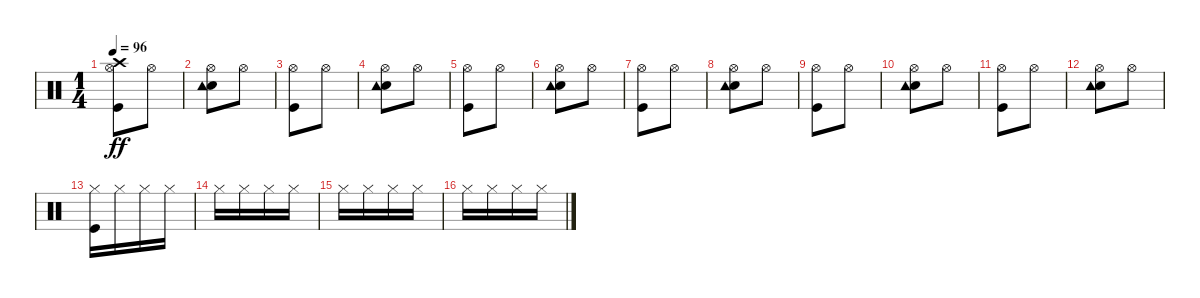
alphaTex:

\track "" {instrument percussion}
\staff {score}
\articulation defaults
\ts (1 4)
\tempo 96
\clef neutral
\ks c
("Kick (hit)" "Hi-Hat (open)" "Crash high (hit)").8{dy ff} "Hi-Hat (open)".8 |
("Snare (hit) 2" "Hi-Hat (open)" "Tambourine (hit)").8 "Hi-Hat (open)".8 |
("Kick (hit)" "Hi-Hat (open)").8 "Hi-Hat (open)".8 |
("Snare (hit) 2" "Hi-Hat (open)" "Tambourine (hit)").8 "Hi-Hat (open)".8 |
("Kick (hit)" "Hi-Hat (open)").8 "Hi-Hat (open)".8 |
("Snare (hit) 2" "Hi-Hat (open)" "Tambourine (hit)").8 "Hi-Hat (open)".8 |
("Kick (hit)" "Hi-Hat (open)").8 "Hi-Hat (open)".8 |
("Snare (hit) 2" "Hi-Hat (open)" "Tambourine (hit)").8 "Hi-Hat (open)".8 |
("Kick (hit)" "Hi-Hat (open)").8 "Hi-Hat (open)".8 |
("Snare (hit) 2" "Hi-Hat (open)" "Tambourine (hit)").8 "Hi-Hat (open)".8 |
("Kick (hit)" "Hi-Hat (open)").8 "Hi-Hat (open)".8 |
("Snare (hit) 2" "Hi-Hat (open)" "Tambourine (hit)").8 "Hi-Hat (open)".8 |
("Kick (hit)" "Hi-Hat (closed)").16 "Hi-Hat (closed)".16 "Hi-Hat (closed)".16 "Hi-Hat (closed)".16 |
"Hi-Hat (closed)".16 "Hi-Hat (closed)".16 "Hi-Hat (closed)".16 "Hi-Hat (closed)".16 |
"Hi-Hat (closed)".16 "Hi-Hat (closed)".16 "Hi-Hat (closed)".16 "Hi-Hat (closed)".16 |
"Hi-Hat (closed)".16 "Hi-Hat (closed)".16 "Hi-Hat (closed)".16 "Hi-Hat (closed)".16
